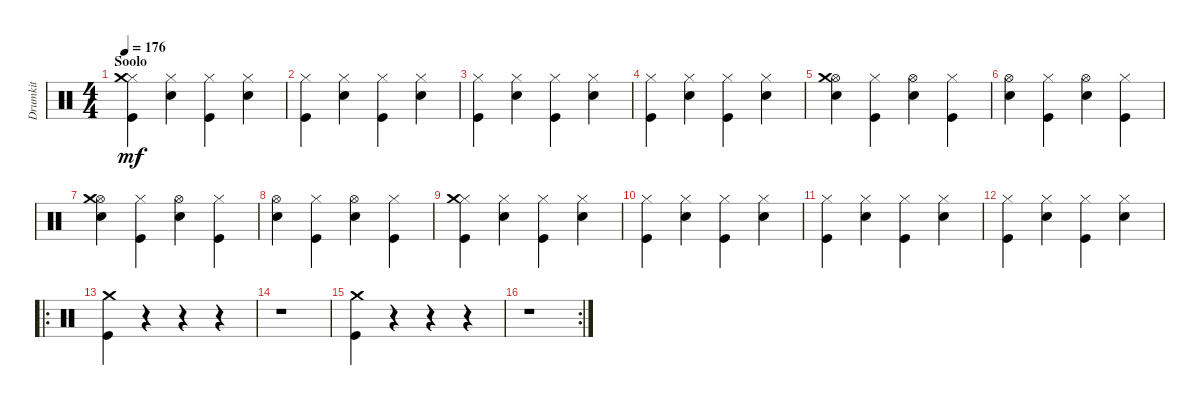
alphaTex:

\track ("Drumkit" "Drumkit") {instrument percussion}
\staff {score}
\articulation defaults
\ts (4 4)
\section ("" "Soolo")
\tempo 176
\clef neutral
\ks c
("Hi-Hat (closed)" "Kick (hit)" "Crash medium (hit)").4{dy mf} ("Hi-Hat (closed)" "Snare (hit) 2").4 ("Hi-Hat (closed)" "Kick (hit)").4 ("Hi-Hat (closed)" "Snare (hit) 2").4 |
("Hi-Hat (closed)" "Kick (hit)").4 ("Hi-Hat (closed)" "Snare (hit) 2").4 ("Hi-Hat (closed)" "Kick (hit)").4 ("Hi-Hat (closed)" "Snare (hit) 2").4 |
("Hi-Hat (closed)" "Kick (hit)").4 ("Hi-Hat (closed)" "Snare (hit) 2").4 ("Hi-Hat (closed)" "Kick (hit)").4 ("Hi-Hat (closed)" "Snare (hit) 2").4 |
("Hi-Hat (closed)" "Kick (hit)").4 ("Hi-Hat (closed)" "Snare (hit) 2").4 ("Hi-Hat (closed)" "Kick (hit)").4 ("Hi-Hat (closed)" "Snare (hit) 2").4 |
("Snare (hit) 2" "Hi-Hat (open)" "Crash medium (hit)").4 ("Kick (hit)" "Hi-Hat (closed)").4 ("Hi-Hat (open)" "Snare (hit) 2").4 ("Kick (hit)" "Hi-Hat (closed)").4 |
("Snare (hit) 2" "Hi-Hat (open)").4 ("Kick (hit)" "Hi-Hat (closed)").4 ("Hi-Hat (open)" "Snare (hit) 2").4 ("Kick (hit)" "Hi-Hat (closed)").4 |
("Snare (hit) 2" "Hi-Hat (open)" "Crash medium (hit)").4 ("Kick (hit)" "Hi-Hat (closed)").4 ("Hi-Hat (open)" "Snare (hit) 2").4 ("Kick (hit)" "Hi-Hat (closed)").4 |
("Snare (hit) 2" "Hi-Hat (open)").4 ("Kick (hit)" "Hi-Hat (closed)").4 ("Hi-Hat (open)" "Snare (hit) 2").4 ("Kick (hit)" "Hi-Hat (closed)").4 |
("Hi-Hat (closed)" "Kick (hit)" "Crash medium (hit)").4 ("Hi-Hat (closed)" "Snare (hit) 2").4 ("Hi-Hat (closed)" "Kick (hit)").4 ("Hi-Hat (closed)" "Snare (hit) 2").4 |
("Hi-Hat (closed)" "Kick (hit)").4 ("Hi-Hat (closed)" "Snare (hit) 2").4 ("Hi-Hat (closed)" "Kick (hit)").4 ("Hi-Hat (closed)" "Snare (hit) 2").4 |
("Hi-Hat (closed)" "Kick (hit)").4 ("Hi-Hat (closed)" "Snare (hit) 2").4 ("Hi-Hat (closed)" "Kick (hit)").4 ("Hi-Hat (closed)" "Snare (hit) 2").4 |
("Hi-Hat (closed)" "Kick (hit)").4 ("Hi-Hat (closed)" "Snare (hit) 2").4 ("Hi-Hat (closed)" "Kick (hit)").4 ("Hi-Hat (closed)" "Snare (hit) 2").4 |
\ro
("Kick (hit)" "Crash medium (hit)").4 r.4 r.4 r.4 |
r.1 |
("Kick (hit)" "Crash medium (hit)").4 r.4 r.4 r.4 |
\rc 2
r.1
